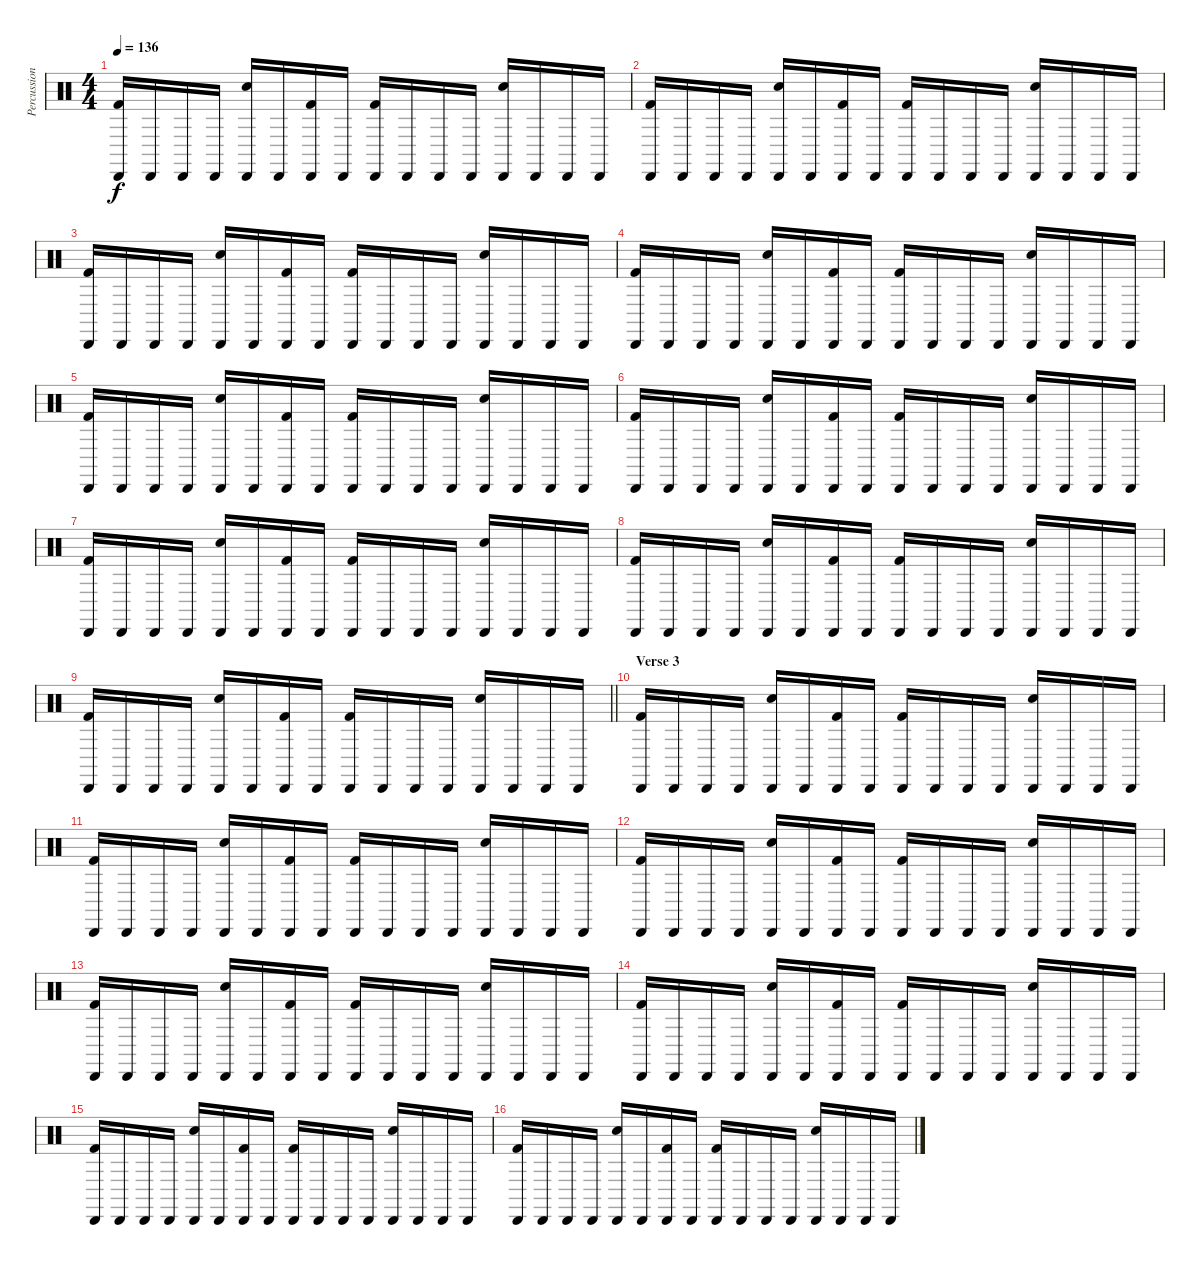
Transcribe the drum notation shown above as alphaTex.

\track ("Percussion" "Percussion") {instrument percussion}
\staff {score}
\articulation defaults
\ts (4 4)
\tempo 136
\clef neutral
\ks c
("Cabasa (hit)" "Kick (hit) 2").16{dy f} "Cabasa (hit)".16 "Cabasa (hit)".16 "Cabasa (hit)".16 ("Cabasa (hit)" "Snare (hit) 2").16 "Cabasa (hit)".16 ("Cabasa (hit)" "Kick (hit) 2").16 "Cabasa (hit)".16 ("Cabasa (hit)" "Kick (hit) 2").16 "Cabasa (hit)".16 "Cabasa (hit)".16 "Cabasa (hit)".16 ("Cabasa (hit)" "Snare (hit) 2").16 "Cabasa (hit)".16 "Cabasa (hit)".16 "Cabasa (hit)".16 |
("Cabasa (hit)" "Kick (hit) 2").16 "Cabasa (hit)".16 "Cabasa (hit)".16 "Cabasa (hit)".16 ("Cabasa (hit)" "Snare (hit) 2").16 "Cabasa (hit)".16 ("Cabasa (hit)" "Kick (hit) 2").16 "Cabasa (hit)".16 ("Cabasa (hit)" "Kick (hit) 2").16 "Cabasa (hit)".16 "Cabasa (hit)".16 "Cabasa (hit)".16 ("Cabasa (hit)" "Snare (hit) 2").16 "Cabasa (hit)".16 "Cabasa (hit)".16 "Cabasa (hit)".16 |
("Cabasa (hit)" "Kick (hit) 2").16 "Cabasa (hit)".16 "Cabasa (hit)".16 "Cabasa (hit)".16 ("Cabasa (hit)" "Snare (hit) 2").16 "Cabasa (hit)".16 ("Cabasa (hit)" "Kick (hit) 2").16 "Cabasa (hit)".16 ("Cabasa (hit)" "Kick (hit) 2").16 "Cabasa (hit)".16 "Cabasa (hit)".16 "Cabasa (hit)".16 ("Cabasa (hit)" "Snare (hit) 2").16 "Cabasa (hit)".16 "Cabasa (hit)".16 "Cabasa (hit)".16 |
("Cabasa (hit)" "Kick (hit) 2").16 "Cabasa (hit)".16 "Cabasa (hit)".16 "Cabasa (hit)".16 ("Cabasa (hit)" "Snare (hit) 2").16 "Cabasa (hit)".16 ("Cabasa (hit)" "Kick (hit) 2").16 "Cabasa (hit)".16 ("Cabasa (hit)" "Kick (hit) 2").16 "Cabasa (hit)".16 "Cabasa (hit)".16 "Cabasa (hit)".16 ("Cabasa (hit)" "Snare (hit) 2").16 "Cabasa (hit)".16 "Cabasa (hit)".16 "Cabasa (hit)".16 |
("Cabasa (hit)" "Kick (hit) 2").16 "Cabasa (hit)".16 "Cabasa (hit)".16 "Cabasa (hit)".16 ("Cabasa (hit)" "Snare (hit) 2").16 "Cabasa (hit)".16 ("Cabasa (hit)" "Kick (hit) 2").16 "Cabasa (hit)".16 ("Cabasa (hit)" "Kick (hit) 2").16 "Cabasa (hit)".16 "Cabasa (hit)".16 "Cabasa (hit)".16 ("Cabasa (hit)" "Snare (hit) 2").16 "Cabasa (hit)".16 "Cabasa (hit)".16 "Cabasa (hit)".16 |
("Cabasa (hit)" "Kick (hit) 2").16 "Cabasa (hit)".16 "Cabasa (hit)".16 "Cabasa (hit)".16 ("Cabasa (hit)" "Snare (hit) 2").16 "Cabasa (hit)".16 ("Cabasa (hit)" "Kick (hit) 2").16 "Cabasa (hit)".16 ("Cabasa (hit)" "Kick (hit) 2").16 "Cabasa (hit)".16 "Cabasa (hit)".16 "Cabasa (hit)".16 ("Cabasa (hit)" "Snare (hit) 2").16 "Cabasa (hit)".16 "Cabasa (hit)".16 "Cabasa (hit)".16 |
("Cabasa (hit)" "Kick (hit) 2").16 "Cabasa (hit)".16 "Cabasa (hit)".16 "Cabasa (hit)".16 ("Cabasa (hit)" "Snare (hit) 2").16 "Cabasa (hit)".16 ("Cabasa (hit)" "Kick (hit) 2").16 "Cabasa (hit)".16 ("Cabasa (hit)" "Kick (hit) 2").16 "Cabasa (hit)".16 "Cabasa (hit)".16 "Cabasa (hit)".16 ("Cabasa (hit)" "Snare (hit) 2").16 "Cabasa (hit)".16 "Cabasa (hit)".16 "Cabasa (hit)".16 |
("Cabasa (hit)" "Kick (hit) 2").16 "Cabasa (hit)".16 "Cabasa (hit)".16 "Cabasa (hit)".16 ("Cabasa (hit)" "Snare (hit) 2").16 "Cabasa (hit)".16 ("Cabasa (hit)" "Kick (hit) 2").16 "Cabasa (hit)".16 ("Cabasa (hit)" "Kick (hit) 2").16 "Cabasa (hit)".16 "Cabasa (hit)".16 "Cabasa (hit)".16 ("Cabasa (hit)" "Snare (hit) 2").16 "Cabasa (hit)".16 "Cabasa (hit)".16 "Cabasa (hit)".16 |
\barLineRight lightlight
("Cabasa (hit)" "Kick (hit) 2").16 "Cabasa (hit)".16 "Cabasa (hit)".16 "Cabasa (hit)".16 ("Cabasa (hit)" "Snare (hit) 2").16 "Cabasa (hit)".16 ("Cabasa (hit)" "Kick (hit) 2").16 "Cabasa (hit)".16 ("Cabasa (hit)" "Kick (hit) 2").16 "Cabasa (hit)".16 "Cabasa (hit)".16 "Cabasa (hit)".16 ("Cabasa (hit)" "Snare (hit) 2").16 "Cabasa (hit)".16 "Cabasa (hit)".16 "Cabasa (hit)".16 |
\section ("" "Verse 3")
("Cabasa (hit)" "Kick (hit) 2").16 "Cabasa (hit)".16 "Cabasa (hit)".16 "Cabasa (hit)".16 ("Cabasa (hit)" "Snare (hit) 2").16 "Cabasa (hit)".16 ("Cabasa (hit)" "Kick (hit) 2").16 "Cabasa (hit)".16 ("Cabasa (hit)" "Kick (hit) 2").16 "Cabasa (hit)".16 "Cabasa (hit)".16 "Cabasa (hit)".16 ("Cabasa (hit)" "Snare (hit) 2").16 "Cabasa (hit)".16 "Cabasa (hit)".16 "Cabasa (hit)".16 |
("Cabasa (hit)" "Kick (hit) 2").16 "Cabasa (hit)".16 "Cabasa (hit)".16 "Cabasa (hit)".16 ("Cabasa (hit)" "Snare (hit) 2").16 "Cabasa (hit)".16 ("Cabasa (hit)" "Kick (hit) 2").16 "Cabasa (hit)".16 ("Cabasa (hit)" "Kick (hit) 2").16 "Cabasa (hit)".16 "Cabasa (hit)".16 "Cabasa (hit)".16 ("Cabasa (hit)" "Snare (hit) 2").16 "Cabasa (hit)".16 "Cabasa (hit)".16 "Cabasa (hit)".16 |
("Cabasa (hit)" "Kick (hit) 2").16 "Cabasa (hit)".16 "Cabasa (hit)".16 "Cabasa (hit)".16 ("Cabasa (hit)" "Snare (hit) 2").16 "Cabasa (hit)".16 ("Cabasa (hit)" "Kick (hit) 2").16 "Cabasa (hit)".16 ("Cabasa (hit)" "Kick (hit) 2").16 "Cabasa (hit)".16 "Cabasa (hit)".16 "Cabasa (hit)".16 ("Cabasa (hit)" "Snare (hit) 2").16 "Cabasa (hit)".16 "Cabasa (hit)".16 "Cabasa (hit)".16 |
("Cabasa (hit)" "Kick (hit) 2").16 "Cabasa (hit)".16 "Cabasa (hit)".16 "Cabasa (hit)".16 ("Cabasa (hit)" "Snare (hit) 2").16 "Cabasa (hit)".16 ("Cabasa (hit)" "Kick (hit) 2").16 "Cabasa (hit)".16 ("Cabasa (hit)" "Kick (hit) 2").16 "Cabasa (hit)".16 "Cabasa (hit)".16 "Cabasa (hit)".16 ("Cabasa (hit)" "Snare (hit) 2").16 "Cabasa (hit)".16 "Cabasa (hit)".16 "Cabasa (hit)".16 |
("Cabasa (hit)" "Kick (hit) 2").16 "Cabasa (hit)".16 "Cabasa (hit)".16 "Cabasa (hit)".16 ("Cabasa (hit)" "Snare (hit) 2").16 "Cabasa (hit)".16 ("Cabasa (hit)" "Kick (hit) 2").16 "Cabasa (hit)".16 ("Cabasa (hit)" "Kick (hit) 2").16 "Cabasa (hit)".16 "Cabasa (hit)".16 "Cabasa (hit)".16 ("Cabasa (hit)" "Snare (hit) 2").16 "Cabasa (hit)".16 "Cabasa (hit)".16 "Cabasa (hit)".16 |
("Cabasa (hit)" "Kick (hit) 2").16 "Cabasa (hit)".16 "Cabasa (hit)".16 "Cabasa (hit)".16 ("Cabasa (hit)" "Snare (hit) 2").16 "Cabasa (hit)".16 ("Cabasa (hit)" "Kick (hit) 2").16 "Cabasa (hit)".16 ("Cabasa (hit)" "Kick (hit) 2").16 "Cabasa (hit)".16 "Cabasa (hit)".16 "Cabasa (hit)".16 ("Cabasa (hit)" "Snare (hit) 2").16 "Cabasa (hit)".16 "Cabasa (hit)".16 "Cabasa (hit)".16 |
("Cabasa (hit)" "Kick (hit) 2").16 "Cabasa (hit)".16 "Cabasa (hit)".16 "Cabasa (hit)".16 ("Cabasa (hit)" "Snare (hit) 2").16 "Cabasa (hit)".16 ("Cabasa (hit)" "Kick (hit) 2").16 "Cabasa (hit)".16 ("Cabasa (hit)" "Kick (hit) 2").16 "Cabasa (hit)".16 "Cabasa (hit)".16 "Cabasa (hit)".16 ("Cabasa (hit)" "Snare (hit) 2").16 "Cabasa (hit)".16 "Cabasa (hit)".16 "Cabasa (hit)".16
